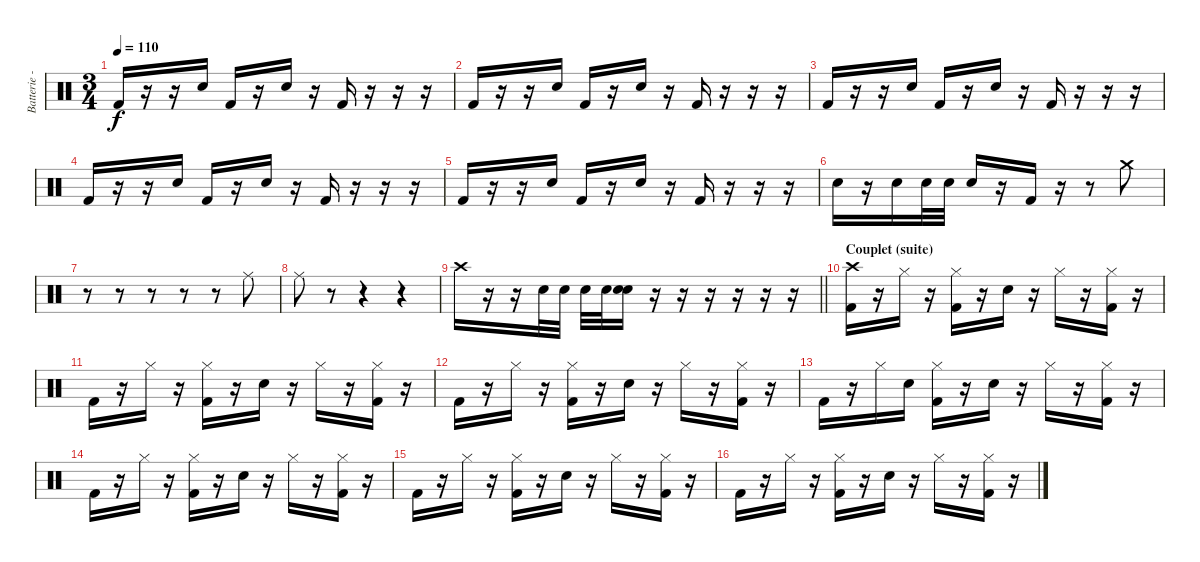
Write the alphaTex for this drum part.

\track ("Batterie - Toshiya" "Batterie -") {instrument percussion}
\staff {score}
\articulation defaults
\ts (3 4)
\tempo 110
\clef neutral
\ks c "Kick (hit) 2".16{dy f}
r.16 r.16 "Electric Snare (hit)".16 "Kick (hit) 2".16 r.16 "Electric Snare (hit)".16 r.16 "Kick (hit) 2".16 r.16 r.16 r.16 |
"Kick (hit) 2".16 r.16 r.16 "Electric Snare (hit)".16 "Kick (hit) 2".16 r.16 "Electric Snare (hit)".16 r.16 "Kick (hit) 2".16 r.16 r.16 r.16 |
"Kick (hit) 2".16 r.16 r.16 "Electric Snare (hit)".16 "Kick (hit) 2".16 r.16 "Electric Snare (hit)".16 r.16 "Kick (hit) 2".16 r.16 r.16 r.16 |
"Kick (hit) 2".16 r.16 r.16 "Electric Snare (hit)".16 "Kick (hit) 2".16 r.16 "Electric Snare (hit)".16 r.16 "Kick (hit) 2".16 r.16 r.16 r.16 |
"Kick (hit) 2".16 r.16 r.16 "Electric Snare (hit)".16 "Kick (hit) 2".16 r.16 "Electric Snare (hit)".16 r.16 "Kick (hit) 2".16 r.16 r.16 r.16 |
"Electric Snare (hit)".16 r.16 "Electric Snare (hit)".16 "Electric Snare (hit)".32 "Electric Snare (hit)".32 "Electric Snare (hit)".16 r.16 "Kick (hit) 2".16 r.16 r.8 "Crash medium (hit)".8 |
r.8 r.8 r.8 r.8 r.8 "Ride (middle)".8 |
"Ride (middle)".8 r.8 r.4 r.4 |
\barLineRight lightlight "Crash high (hit)".16
r.16 r.16 "Electric Snare (hit)".32 "Electric Snare (hit)".32 "Electric Snare (hit)".32 "Electric Snare (hit)".32 ("Electric Snare (hit)" "Electric Snare (hit)").16 r.16 r.16 r.16 r.16 r.16 r.16 |
\section ("" "Couplet (suite)")
("Crash high (hit)" "Kick (hit) 2").16 r.16 "Hi-Hat (closed)".16 r.16 ("Hi-Hat (closed)" "Kick (hit) 2").16 r.16 "Electric Snare (hit)".16 r.16 "Hi-Hat (closed)".16 r.16 ("Hi-Hat (closed)" "Kick (hit) 2").16 r.16 |
"Kick (hit) 2".16 r.16 "Hi-Hat (closed)".16 r.16 ("Hi-Hat (closed)" "Kick (hit) 2").16 r.16 "Electric Snare (hit)".16 r.16 "Hi-Hat (closed)".16 r.16 ("Hi-Hat (closed)" "Kick (hit) 2").16 r.16 |
"Kick (hit) 2".16 r.16 "Hi-Hat (closed)".16 r.16 ("Hi-Hat (closed)" "Kick (hit) 2").16 r.16 "Electric Snare (hit)".16 r.16 "Hi-Hat (closed)".16 r.16 ("Hi-Hat (closed)" "Kick (hit) 2").16 r.16 |
"Kick (hit) 2".16 r.16 "Hi-Hat (closed)".16 "Electric Snare (hit)".16 ("Hi-Hat (closed)" "Kick (hit) 2").16 r.16 "Electric Snare (hit)".16 r.16 "Hi-Hat (closed)".16 r.16 ("Hi-Hat (closed)" "Kick (hit) 2").16 r.16 |
"Kick (hit) 2".16 r.16 "Hi-Hat (closed)".16 r.16 ("Hi-Hat (closed)" "Kick (hit) 2").16 r.16 "Electric Snare (hit)".16 r.16 "Hi-Hat (closed)".16 r.16 ("Hi-Hat (closed)" "Kick (hit) 2").16 r.16 |
"Kick (hit) 2".16 r.16 "Hi-Hat (closed)".16 r.16 ("Hi-Hat (closed)" "Kick (hit) 2").16 r.16 "Electric Snare (hit)".16 r.16 "Hi-Hat (closed)".16 r.16 ("Hi-Hat (closed)" "Kick (hit) 2").16 r.16 |
"Kick (hit) 2".16 r.16 "Hi-Hat (closed)".16 r.16 ("Hi-Hat (closed)" "Kick (hit) 2").16 r.16 "Electric Snare (hit)".16 r.16 "Hi-Hat (closed)".16 r.16 ("Hi-Hat (closed)" "Kick (hit) 2").16 r.16
